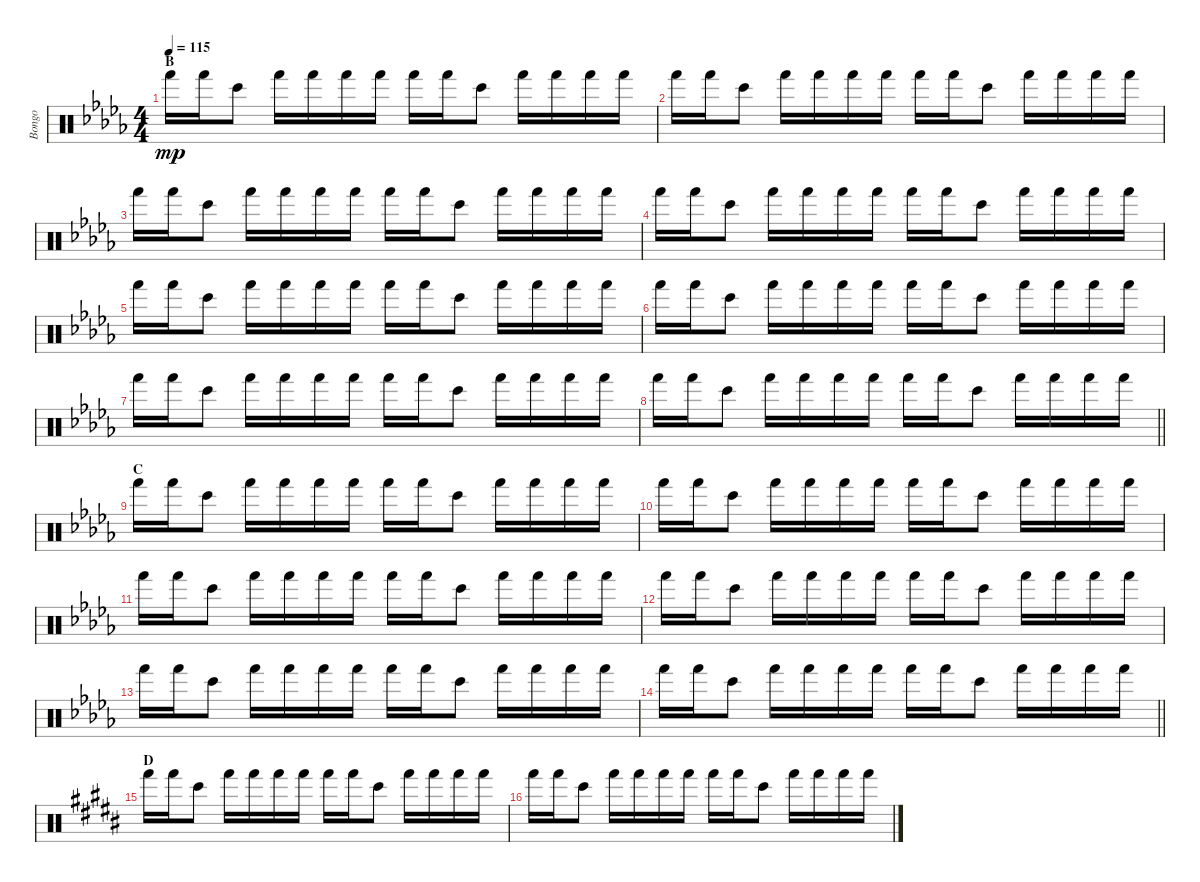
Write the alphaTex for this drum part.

\track ("Bongo" "Bongo") {instrument percussion}
\staff {score}
\articulation defaults
\ts (4 4)
\section ("" "B")
\tempo 115
\clef neutral
\ks db "Hand (hit)".16{dy mp} "Hand (hit)".16 "Bongo High (hit)".8 "Hand (hit)".16 "Hand (hit)".16 "Hand (hit)".16 "Hand (hit)".16 "Hand (hit)".16 "Hand (hit)".16 "Bongo High (hit)".8 "Hand (hit)".16 "Hand (hit)".16 "Hand (hit)".16 "Hand (hit)".16
|
"Hand (hit)".16 "Hand (hit)".16 "Bongo High (hit)".8 "Hand (hit)".16 "Hand (hit)".16 "Hand (hit)".16 "Hand (hit)".16 "Hand (hit)".16 "Hand (hit)".16 "Bongo High (hit)".8 "Hand (hit)".16 "Hand (hit)".16 "Hand (hit)".16 "Hand (hit)".16 |
"Hand (hit)".16 "Hand (hit)".16 "Bongo High (hit)".8 "Hand (hit)".16 "Hand (hit)".16 "Hand (hit)".16 "Hand (hit)".16 "Hand (hit)".16 "Hand (hit)".16 "Bongo High (hit)".8 "Hand (hit)".16 "Hand (hit)".16 "Hand (hit)".16 "Hand (hit)".16 |
"Hand (hit)".16 "Hand (hit)".16 "Bongo High (hit)".8 "Hand (hit)".16 "Hand (hit)".16 "Hand (hit)".16 "Hand (hit)".16 "Hand (hit)".16 "Hand (hit)".16 "Bongo High (hit)".8 "Hand (hit)".16 "Hand (hit)".16 "Hand (hit)".16 "Hand (hit)".16 |
"Hand (hit)".16 "Hand (hit)".16 "Bongo High (hit)".8 "Hand (hit)".16 "Hand (hit)".16 "Hand (hit)".16 "Hand (hit)".16 "Hand (hit)".16 "Hand (hit)".16 "Bongo High (hit)".8 "Hand (hit)".16 "Hand (hit)".16 "Hand (hit)".16 "Hand (hit)".16 |
"Hand (hit)".16 "Hand (hit)".16 "Bongo High (hit)".8 "Hand (hit)".16 "Hand (hit)".16 "Hand (hit)".16 "Hand (hit)".16 "Hand (hit)".16 "Hand (hit)".16 "Bongo High (hit)".8 "Hand (hit)".16 "Hand (hit)".16 "Hand (hit)".16 "Hand (hit)".16 |
"Hand (hit)".16 "Hand (hit)".16 "Bongo High (hit)".8 "Hand (hit)".16 "Hand (hit)".16 "Hand (hit)".16 "Hand (hit)".16 "Hand (hit)".16 "Hand (hit)".16 "Bongo High (hit)".8 "Hand (hit)".16 "Hand (hit)".16 "Hand (hit)".16 "Hand (hit)".16 |
\barLineRight lightlight "Hand (hit)".16 "Hand (hit)".16 "Bongo High (hit)".8 "Hand (hit)".16 "Hand (hit)".16 "Hand (hit)".16 "Hand (hit)".16 "Hand (hit)".16 "Hand (hit)".16 "Bongo High (hit)".8 "Hand (hit)".16 "Hand (hit)".16 "Hand (hit)".16 "Hand (hit)".16
|
\section ("" "C")
"Hand (hit)".16 "Hand (hit)".16 "Bongo High (hit)".8 "Hand (hit)".16 "Hand (hit)".16 "Hand (hit)".16 "Hand (hit)".16 "Hand (hit)".16 "Hand (hit)".16 "Bongo High (hit)".8 "Hand (hit)".16 "Hand (hit)".16 "Hand (hit)".16 "Hand (hit)".16 |
"Hand (hit)".16 "Hand (hit)".16 "Bongo High (hit)".8 "Hand (hit)".16 "Hand (hit)".16 "Hand (hit)".16 "Hand (hit)".16 "Hand (hit)".16 "Hand (hit)".16 "Bongo High (hit)".8 "Hand (hit)".16 "Hand (hit)".16 "Hand (hit)".16 "Hand (hit)".16 |
"Hand (hit)".16 "Hand (hit)".16 "Bongo High (hit)".8 "Hand (hit)".16 "Hand (hit)".16 "Hand (hit)".16 "Hand (hit)".16 "Hand (hit)".16 "Hand (hit)".16 "Bongo High (hit)".8 "Hand (hit)".16 "Hand (hit)".16 "Hand (hit)".16 "Hand (hit)".16 |
"Hand (hit)".16 "Hand (hit)".16 "Bongo High (hit)".8 "Hand (hit)".16 "Hand (hit)".16 "Hand (hit)".16 "Hand (hit)".16 "Hand (hit)".16 "Hand (hit)".16 "Bongo High (hit)".8 "Hand (hit)".16 "Hand (hit)".16 "Hand (hit)".16 "Hand (hit)".16 |
"Hand (hit)".16 "Hand (hit)".16 "Bongo High (hit)".8 "Hand (hit)".16 "Hand (hit)".16 "Hand (hit)".16 "Hand (hit)".16 "Hand (hit)".16 "Hand (hit)".16 "Bongo High (hit)".8 "Hand (hit)".16 "Hand (hit)".16 "Hand (hit)".16 "Hand (hit)".16 |
\barLineRight lightlight "Hand (hit)".16 "Hand (hit)".16 "Bongo High (hit)".8 "Hand (hit)".16 "Hand (hit)".16 "Hand (hit)".16 "Hand (hit)".16 "Hand (hit)".16 "Hand (hit)".16 "Bongo High (hit)".8 "Hand (hit)".16 "Hand (hit)".16 "Hand (hit)".16 "Hand (hit)".16
|
\section ("" "D")
\ks b "Hand (hit)".16 "Hand (hit)".16 "Bongo High (hit)".8 "Hand (hit)".16 "Hand (hit)".16 "Hand (hit)".16 "Hand (hit)".16 "Hand (hit)".16 "Hand (hit)".16 "Bongo High (hit)".8 "Hand (hit)".16 "Hand (hit)".16 "Hand (hit)".16 "Hand (hit)".16
|
"Hand (hit)".16 "Hand (hit)".16 "Bongo High (hit)".8 "Hand (hit)".16 "Hand (hit)".16 "Hand (hit)".16 "Hand (hit)".16 "Hand (hit)".16 "Hand (hit)".16 "Bongo High (hit)".8 "Hand (hit)".16 "Hand (hit)".16 "Hand (hit)".16 "Hand (hit)".16
